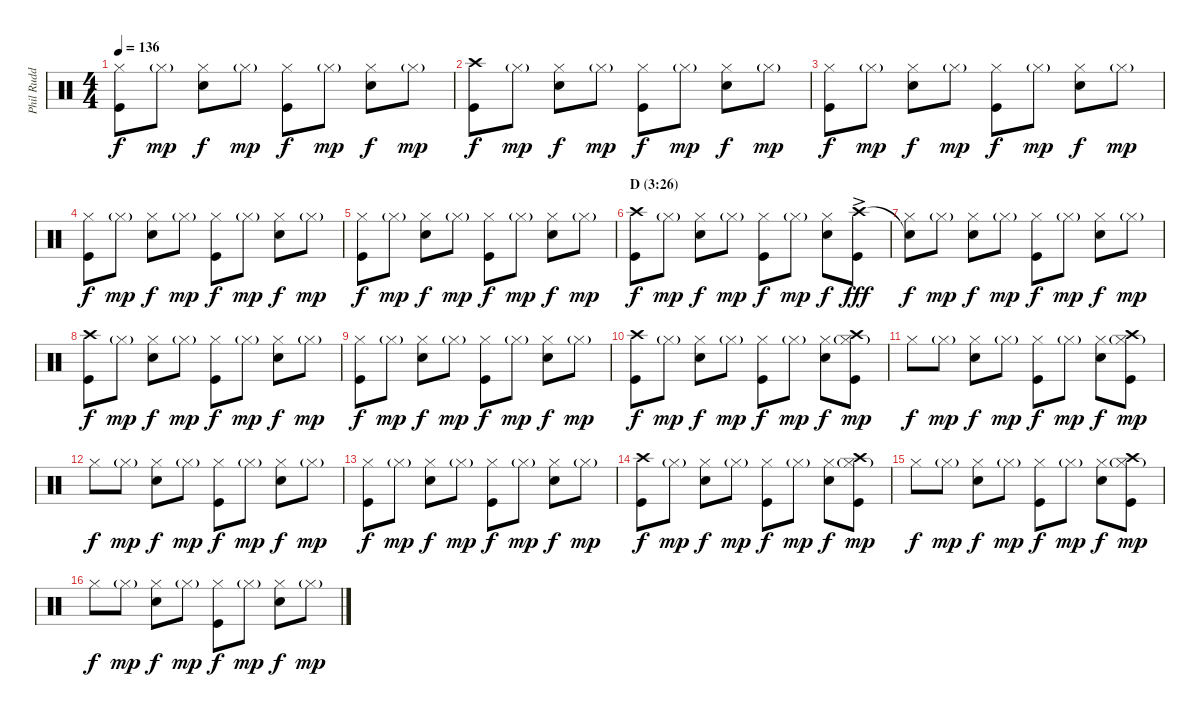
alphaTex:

\track ("Phil Rudd" "Phil Rudd") {instrument percussion}
\staff {score}
\articulation defaults
\ts (4 4)
\tempo 136
\clef neutral
\ks c
("Hi-Hat (closed)" "Kick (hit)").8{dy f} "Hi-Hat (closed)"{g}.8{dy mp} ("Hi-Hat (closed)" "Electric Snare (hit)").8{dy f} "Hi-Hat (closed)"{g}.8{dy mp} ("Hi-Hat (closed)" "Kick (hit)").8{dy f} "Hi-Hat (closed)"{g}.8{dy mp} ("Hi-Hat (closed)" "Electric Snare (hit)").8{dy f} "Hi-Hat (closed)"{g}.8{dy mp} |
("Crash high (hit)" "Kick (hit)").8{dy f} "Hi-Hat (closed)"{g}.8{dy mp} ("Hi-Hat (closed)" "Electric Snare (hit)").8{dy f} "Hi-Hat (closed)"{g}.8{dy mp} ("Hi-Hat (closed)" "Kick (hit)").8{dy f} "Hi-Hat (closed)"{g}.8{dy mp} ("Hi-Hat (closed)" "Electric Snare (hit)").8{dy f} "Hi-Hat (closed)"{g}.8{dy mp} |
("Hi-Hat (closed)" "Kick (hit)").8{dy f} "Hi-Hat (closed)"{g}.8{dy mp} ("Hi-Hat (closed)" "Electric Snare (hit)").8{dy f} "Hi-Hat (closed)"{g}.8{dy mp} ("Hi-Hat (closed)" "Kick (hit)").8{dy f} "Hi-Hat (closed)"{g}.8{dy mp} ("Hi-Hat (closed)" "Electric Snare (hit)").8{dy f} "Hi-Hat (closed)"{g}.8{dy mp} |
("Hi-Hat (closed)" "Kick (hit)").8{dy f} "Hi-Hat (closed)"{g}.8{dy mp} ("Hi-Hat (closed)" "Electric Snare (hit)").8{dy f} "Hi-Hat (closed)"{g}.8{dy mp} ("Hi-Hat (closed)" "Kick (hit)").8{dy f} "Hi-Hat (closed)"{g}.8{dy mp} ("Hi-Hat (closed)" "Electric Snare (hit)").8{dy f} "Hi-Hat (closed)"{g}.8{dy mp} |
("Hi-Hat (closed)" "Kick (hit)").8{dy f} "Hi-Hat (closed)"{g}.8{dy mp} ("Hi-Hat (closed)" "Electric Snare (hit)").8{dy f} "Hi-Hat (closed)"{g}.8{dy mp} ("Hi-Hat (closed)" "Kick (hit)").8{dy f} "Hi-Hat (closed)"{g}.8{dy mp} ("Hi-Hat (closed)" "Electric Snare (hit)").8{dy f} "Hi-Hat (closed)"{g}.8{dy mp} |
\section ("" "D (3:26)")
("Crash high (hit)" "Kick (hit)").8{dy f} "Hi-Hat (closed)"{g}.8{dy mp} ("Hi-Hat (closed)" "Electric Snare (hit)").8{dy f} "Hi-Hat (closed)"{g}.8{dy mp} ("Hi-Hat (closed)" "Kick (hit)").8{dy f} "Hi-Hat (closed)"{g}.8{dy mp} ("Hi-Hat (closed)" "Electric Snare (hit)").8{dy f} ("Crash high (hit)"{ac} "Kick (hit)").8{dy fff} |
("Snare (hit)"{t} "Hi-Hat (closed)").8{dy f} "Hi-Hat (closed)"{g}.8{dy mp} ("Hi-Hat (closed)" "Electric Snare (hit)").8{dy f} "Hi-Hat (closed)"{g}.8{dy mp} ("Hi-Hat (closed)" "Kick (hit)").8{dy f} "Hi-Hat (closed)"{g}.8{dy mp} ("Hi-Hat (closed)" "Electric Snare (hit)").8{dy f} "Hi-Hat (closed)"{g}.8{dy mp} |
("Crash high (hit)" "Kick (hit)").8{dy f} "Hi-Hat (closed)"{g}.8{dy mp} ("Hi-Hat (closed)" "Electric Snare (hit)").8{dy f} "Hi-Hat (closed)"{g}.8{dy mp} ("Hi-Hat (closed)" "Kick (hit)").8{dy f} "Hi-Hat (closed)"{g}.8{dy mp} ("Hi-Hat (closed)" "Electric Snare (hit)").8{dy f} "Hi-Hat (closed)"{g}.8{dy mp} |
("Hi-Hat (closed)" "Kick (hit)").8{dy f} "Hi-Hat (closed)"{g}.8{dy mp} ("Hi-Hat (closed)" "Electric Snare (hit)").8{dy f} "Hi-Hat (closed)"{g}.8{dy mp} ("Hi-Hat (closed)" "Kick (hit)").8{dy f} "Hi-Hat (closed)"{g}.8{dy mp} ("Hi-Hat (closed)" "Electric Snare (hit)").8{dy f} "Hi-Hat (closed)"{g}.8{dy mp} |
("Crash high (hit)" "Kick (hit)").8{dy f} "Hi-Hat (closed)"{g}.8{dy mp} ("Hi-Hat (closed)" "Electric Snare (hit)").8{dy f} "Hi-Hat (closed)"{g}.8{dy mp} ("Hi-Hat (closed)" "Kick (hit)").8{dy f} "Hi-Hat (closed)"{g}.8{dy mp} ("Hi-Hat (closed)" "Electric Snare (hit)").8{dy f} ("Crash high (hit)" "Hi-Hat (closed)"{g} "Kick (hit)").8{dy mp} |
"Hi-Hat (closed)".8{dy f} "Hi-Hat (closed)"{g}.8{dy mp} ("Hi-Hat (closed)" "Electric Snare (hit)").8{dy f} "Hi-Hat (closed)"{g}.8{dy mp} ("Hi-Hat (closed)" "Kick (hit)").8{dy f} "Hi-Hat (closed)"{g}.8{dy mp} ("Hi-Hat (closed)" "Electric Snare (hit)").8{dy f} ("Crash high (hit)" "Hi-Hat (closed)"{g} "Kick (hit)").8{dy mp} |
"Hi-Hat (closed)".8{dy f} "Hi-Hat (closed)"{g}.8{dy mp} ("Hi-Hat (closed)" "Electric Snare (hit)").8{dy f} "Hi-Hat (closed)"{g}.8{dy mp} ("Hi-Hat (closed)" "Kick (hit)").8{dy f} "Hi-Hat (closed)"{g}.8{dy mp} ("Hi-Hat (closed)" "Electric Snare (hit)").8{dy f} "Hi-Hat (closed)"{g}.8{dy mp} |
("Hi-Hat (closed)" "Kick (hit)").8{dy f} "Hi-Hat (closed)"{g}.8{dy mp} ("Hi-Hat (closed)" "Electric Snare (hit)").8{dy f} "Hi-Hat (closed)"{g}.8{dy mp} ("Hi-Hat (closed)" "Kick (hit)").8{dy f} "Hi-Hat (closed)"{g}.8{dy mp} ("Hi-Hat (closed)" "Electric Snare (hit)").8{dy f} "Hi-Hat (closed)"{g}.8{dy mp} |
("Crash high (hit)" "Kick (hit)").8{dy f} "Hi-Hat (closed)"{g}.8{dy mp} ("Hi-Hat (closed)" "Electric Snare (hit)").8{dy f} "Hi-Hat (closed)"{g}.8{dy mp} ("Hi-Hat (closed)" "Kick (hit)").8{dy f} "Hi-Hat (closed)"{g}.8{dy mp} ("Hi-Hat (closed)" "Electric Snare (hit)").8{dy f} ("Crash high (hit)" "Hi-Hat (closed)"{g} "Kick (hit)").8{dy mp} |
"Hi-Hat (closed)".8{dy f} "Hi-Hat (closed)"{g}.8{dy mp} ("Hi-Hat (closed)" "Electric Snare (hit)").8{dy f} "Hi-Hat (closed)"{g}.8{dy mp} ("Hi-Hat (closed)" "Kick (hit)").8{dy f} "Hi-Hat (closed)"{g}.8{dy mp} ("Hi-Hat (closed)" "Electric Snare (hit)").8{dy f} ("Crash high (hit)" "Hi-Hat (closed)"{g} "Kick (hit)").8{dy mp} |
"Hi-Hat (closed)".8{dy f} "Hi-Hat (closed)"{g}.8{dy mp} ("Hi-Hat (closed)" "Electric Snare (hit)").8{dy f} "Hi-Hat (closed)"{g}.8{dy mp} ("Hi-Hat (closed)" "Kick (hit)").8{dy f} "Hi-Hat (closed)"{g}.8{dy mp} ("Hi-Hat (closed)" "Electric Snare (hit)").8{dy f} "Hi-Hat (closed)"{g}.8{dy mp}
